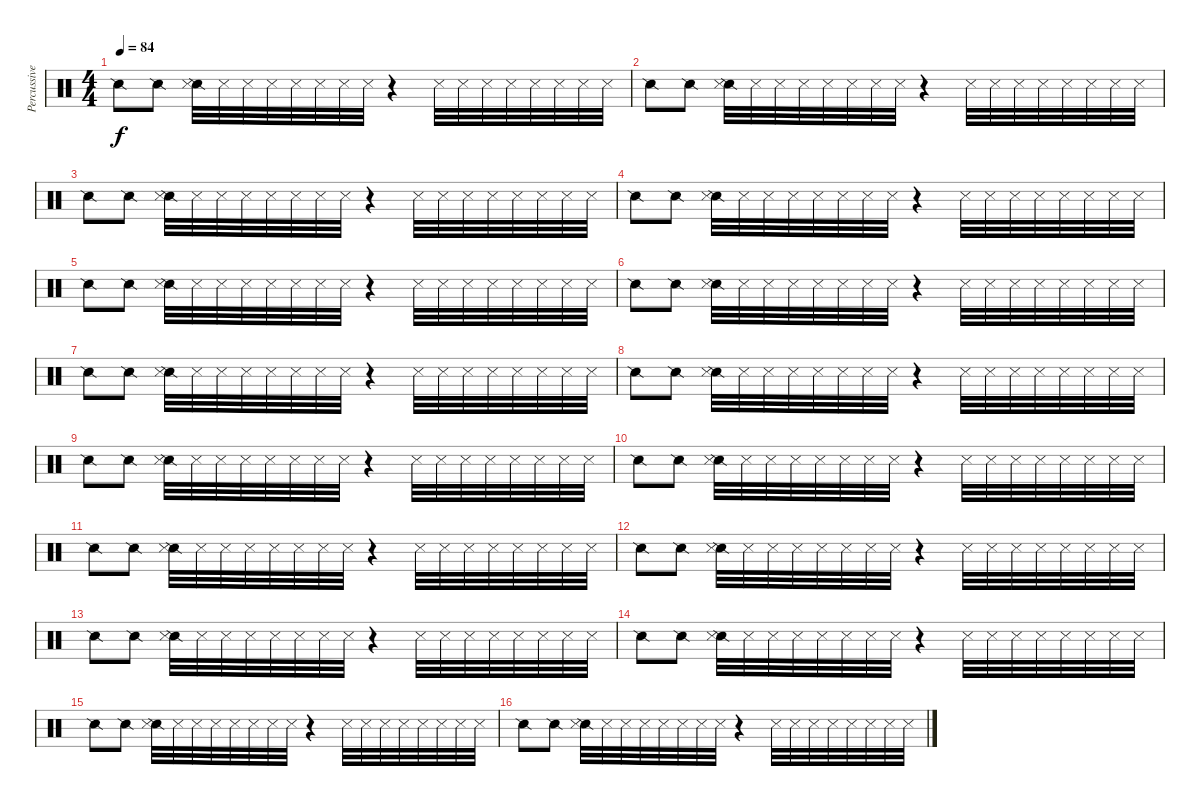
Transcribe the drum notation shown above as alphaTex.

\track ("Percussive Over-Dubs" "Percussive") {instrument percussion}
\staff {score}
\articulation defaults
\ts (4 4)
\tempo 84
\clef neutral
\ks c "Snare (side stick) 2".8{dy f} "Snare (side stick) 2".8
("Snare (side stick) 2" "Metronome (hit)").32 "Metronome (hit)".32 "Metronome (hit)".32 "Metronome (hit)".32 "Metronome (hit)".32 "Metronome (hit)".32 "Metronome (hit)".32 "Metronome (hit)".32 r.4 "Metronome (hit)".32 "Metronome (hit)".32 "Metronome (hit)".32 "Metronome (hit)".32 "Metronome (hit)".32 "Metronome (hit)".32 "Metronome (hit)".32 "Metronome (hit)".32 |
"Snare (side stick) 2".8 "Snare (side stick) 2".8 ("Snare (side stick) 2" "Metronome (hit)").32 "Metronome (hit)".32 "Metronome (hit)".32 "Metronome (hit)".32 "Metronome (hit)".32 "Metronome (hit)".32 "Metronome (hit)".32 "Metronome (hit)".32 r.4 "Metronome (hit)".32 "Metronome (hit)".32 "Metronome (hit)".32 "Metronome (hit)".32 "Metronome (hit)".32 "Metronome (hit)".32 "Metronome (hit)".32 "Metronome (hit)".32 |
"Snare (side stick) 2".8 "Snare (side stick) 2".8 ("Snare (side stick) 2" "Metronome (hit)").32 "Metronome (hit)".32 "Metronome (hit)".32 "Metronome (hit)".32 "Metronome (hit)".32 "Metronome (hit)".32 "Metronome (hit)".32 "Metronome (hit)".32 r.4 "Metronome (hit)".32 "Metronome (hit)".32 "Metronome (hit)".32 "Metronome (hit)".32 "Metronome (hit)".32 "Metronome (hit)".32 "Metronome (hit)".32 "Metronome (hit)".32 |
"Snare (side stick) 2".8 "Snare (side stick) 2".8 ("Snare (side stick) 2" "Metronome (hit)").32 "Metronome (hit)".32 "Metronome (hit)".32 "Metronome (hit)".32 "Metronome (hit)".32 "Metronome (hit)".32 "Metronome (hit)".32 "Metronome (hit)".32 r.4 "Metronome (hit)".32 "Metronome (hit)".32 "Metronome (hit)".32 "Metronome (hit)".32 "Metronome (hit)".32 "Metronome (hit)".32 "Metronome (hit)".32 "Metronome (hit)".32 |
"Snare (side stick) 2".8 "Snare (side stick) 2".8 ("Snare (side stick) 2" "Metronome (hit)").32 "Metronome (hit)".32 "Metronome (hit)".32 "Metronome (hit)".32 "Metronome (hit)".32 "Metronome (hit)".32 "Metronome (hit)".32 "Metronome (hit)".32 r.4 "Metronome (hit)".32 "Metronome (hit)".32 "Metronome (hit)".32 "Metronome (hit)".32 "Metronome (hit)".32 "Metronome (hit)".32 "Metronome (hit)".32 "Metronome (hit)".32 |
"Snare (side stick) 2".8 "Snare (side stick) 2".8 ("Snare (side stick) 2" "Metronome (hit)").32 "Metronome (hit)".32 "Metronome (hit)".32 "Metronome (hit)".32 "Metronome (hit)".32 "Metronome (hit)".32 "Metronome (hit)".32 "Metronome (hit)".32 r.4 "Metronome (hit)".32 "Metronome (hit)".32 "Metronome (hit)".32 "Metronome (hit)".32 "Metronome (hit)".32 "Metronome (hit)".32 "Metronome (hit)".32 "Metronome (hit)".32 |
"Snare (side stick) 2".8 "Snare (side stick) 2".8 ("Snare (side stick) 2" "Metronome (hit)").32 "Metronome (hit)".32 "Metronome (hit)".32 "Metronome (hit)".32 "Metronome (hit)".32 "Metronome (hit)".32 "Metronome (hit)".32 "Metronome (hit)".32 r.4 "Metronome (hit)".32 "Metronome (hit)".32 "Metronome (hit)".32 "Metronome (hit)".32 "Metronome (hit)".32 "Metronome (hit)".32 "Metronome (hit)".32 "Metronome (hit)".32 |
"Snare (side stick) 2".8 "Snare (side stick) 2".8 ("Snare (side stick) 2" "Metronome (hit)").32 "Metronome (hit)".32 "Metronome (hit)".32 "Metronome (hit)".32 "Metronome (hit)".32 "Metronome (hit)".32 "Metronome (hit)".32 "Metronome (hit)".32 r.4 "Metronome (hit)".32 "Metronome (hit)".32 "Metronome (hit)".32 "Metronome (hit)".32 "Metronome (hit)".32 "Metronome (hit)".32 "Metronome (hit)".32 "Metronome (hit)".32 |
"Snare (side stick) 2".8 "Snare (side stick) 2".8 ("Snare (side stick) 2" "Metronome (hit)").32 "Metronome (hit)".32 "Metronome (hit)".32 "Metronome (hit)".32 "Metronome (hit)".32 "Metronome (hit)".32 "Metronome (hit)".32 "Metronome (hit)".32 r.4 "Metronome (hit)".32 "Metronome (hit)".32 "Metronome (hit)".32 "Metronome (hit)".32 "Metronome (hit)".32 "Metronome (hit)".32 "Metronome (hit)".32 "Metronome (hit)".32 |
"Snare (side stick) 2".8 "Snare (side stick) 2".8 ("Snare (side stick) 2" "Metronome (hit)").32 "Metronome (hit)".32 "Metronome (hit)".32 "Metronome (hit)".32 "Metronome (hit)".32 "Metronome (hit)".32 "Metronome (hit)".32 "Metronome (hit)".32 r.4 "Metronome (hit)".32 "Metronome (hit)".32 "Metronome (hit)".32 "Metronome (hit)".32 "Metronome (hit)".32 "Metronome (hit)".32 "Metronome (hit)".32 "Metronome (hit)".32 |
"Snare (side stick) 2".8 "Snare (side stick) 2".8 ("Snare (side stick) 2" "Metronome (hit)").32 "Metronome (hit)".32 "Metronome (hit)".32 "Metronome (hit)".32 "Metronome (hit)".32 "Metronome (hit)".32 "Metronome (hit)".32 "Metronome (hit)".32 r.4 "Metronome (hit)".32 "Metronome (hit)".32 "Metronome (hit)".32 "Metronome (hit)".32 "Metronome (hit)".32 "Metronome (hit)".32 "Metronome (hit)".32 "Metronome (hit)".32 |
"Snare (side stick) 2".8 "Snare (side stick) 2".8 ("Snare (side stick) 2" "Metronome (hit)").32 "Metronome (hit)".32 "Metronome (hit)".32 "Metronome (hit)".32 "Metronome (hit)".32 "Metronome (hit)".32 "Metronome (hit)".32 "Metronome (hit)".32 r.4 "Metronome (hit)".32 "Metronome (hit)".32 "Metronome (hit)".32 "Metronome (hit)".32 "Metronome (hit)".32 "Metronome (hit)".32 "Metronome (hit)".32 "Metronome (hit)".32 |
"Snare (side stick) 2".8 "Snare (side stick) 2".8 ("Snare (side stick) 2" "Metronome (hit)").32 "Metronome (hit)".32 "Metronome (hit)".32 "Metronome (hit)".32 "Metronome (hit)".32 "Metronome (hit)".32 "Metronome (hit)".32 "Metronome (hit)".32 r.4 "Metronome (hit)".32 "Metronome (hit)".32 "Metronome (hit)".32 "Metronome (hit)".32 "Metronome (hit)".32 "Metronome (hit)".32 "Metronome (hit)".32 "Metronome (hit)".32 |
"Snare (side stick) 2".8 "Snare (side stick) 2".8 ("Snare (side stick) 2" "Metronome (hit)").32 "Metronome (hit)".32 "Metronome (hit)".32 "Metronome (hit)".32 "Metronome (hit)".32 "Metronome (hit)".32 "Metronome (hit)".32 "Metronome (hit)".32 r.4 "Metronome (hit)".32 "Metronome (hit)".32 "Metronome (hit)".32 "Metronome (hit)".32 "Metronome (hit)".32 "Metronome (hit)".32 "Metronome (hit)".32 "Metronome (hit)".32 |
"Snare (side stick) 2".8 "Snare (side stick) 2".8 ("Snare (side stick) 2" "Metronome (hit)").32 "Metronome (hit)".32 "Metronome (hit)".32 "Metronome (hit)".32 "Metronome (hit)".32 "Metronome (hit)".32 "Metronome (hit)".32 "Metronome (hit)".32 r.4 "Metronome (hit)".32 "Metronome (hit)".32 "Metronome (hit)".32 "Metronome (hit)".32 "Metronome (hit)".32 "Metronome (hit)".32 "Metronome (hit)".32 "Metronome (hit)".32 |
"Snare (side stick) 2".8 "Snare (side stick) 2".8 ("Snare (side stick) 2" "Metronome (hit)").32 "Metronome (hit)".32 "Metronome (hit)".32 "Metronome (hit)".32 "Metronome (hit)".32 "Metronome (hit)".32 "Metronome (hit)".32 "Metronome (hit)".32 r.4 "Metronome (hit)".32 "Metronome (hit)".32 "Metronome (hit)".32 "Metronome (hit)".32 "Metronome (hit)".32 "Metronome (hit)".32 "Metronome (hit)".32 "Metronome (hit)".32
